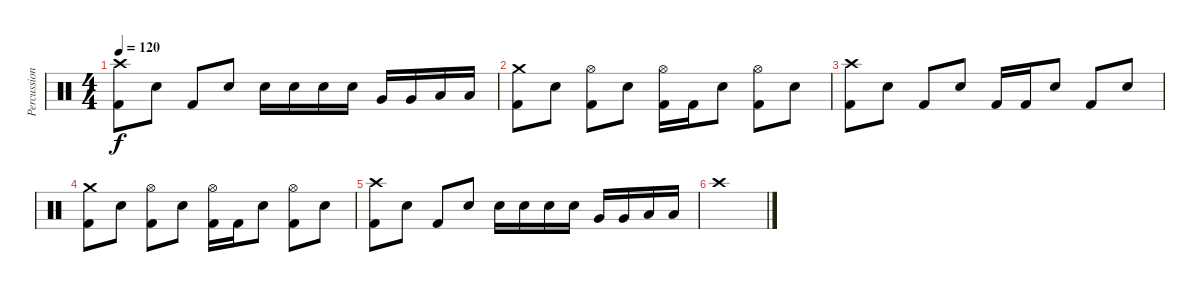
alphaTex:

\track ("Percussion" "Percussion") {instrument percussion}
\staff {score}
\articulation defaults
\ts (4 4)
\tempo 120
\clef neutral
\ks c
("Crash high (hit)" "Kick (hit) 2").8{dy f} "Snare (hit) 2".8 "Kick (hit) 2".8 "Snare (hit) 2".8 "Snare (hit) 2".16 "Snare (hit) 2".16 "Electric Snare (hit)".16 "Electric Snare (hit)".16 "Very Low Tom (hit)".16 "Very Low Tom (hit)".16 "Low Tom (hit)".16 "Low Tom (hit)".16 |
("Crash medium (hit)" "Kick (hit) 2").8 "Snare (hit) 2".8 ("Hi-Hat (open)" "Kick (hit) 2").8 "Snare (hit) 2".8 ("Hi-Hat (open)" "Kick (hit) 2").16 "Kick (hit) 2".16 "Snare (hit) 2".8 ("Hi-Hat (open)" "Kick (hit) 2").8 "Snare (hit) 2".8 |
("Crash high (hit)" "Kick (hit) 2").8 "Snare (hit) 2".8 "Kick (hit) 2".8 "Snare (hit) 2".8 "Kick (hit) 2".16 "Kick (hit) 2".16 "Snare (hit) 2".8 "Kick (hit) 2".8 "Snare (hit) 2".8 |
("Crash medium (hit)" "Kick (hit) 2").8 "Snare (hit) 2".8 ("Hi-Hat (open)" "Kick (hit) 2").8 "Snare (hit) 2".8 ("Hi-Hat (open)" "Kick (hit) 2").16 "Kick (hit) 2".16 "Snare (hit) 2".8 ("Hi-Hat (open)" "Kick (hit) 2").8 "Snare (hit) 2".8 |
("Crash high (hit)" "Kick (hit) 2").8 "Snare (hit) 2".8 "Kick (hit) 2".8 "Snare (hit) 2".8 "Snare (hit) 2".16 "Snare (hit) 2".16 "Electric Snare (hit)".16 "Electric Snare (hit)".16 "Very Low Tom (hit)".16 "Very Low Tom (hit)".16 "Low Tom (hit)".16 "Low Tom (hit)".16 |
"Crash high (hit)".1
